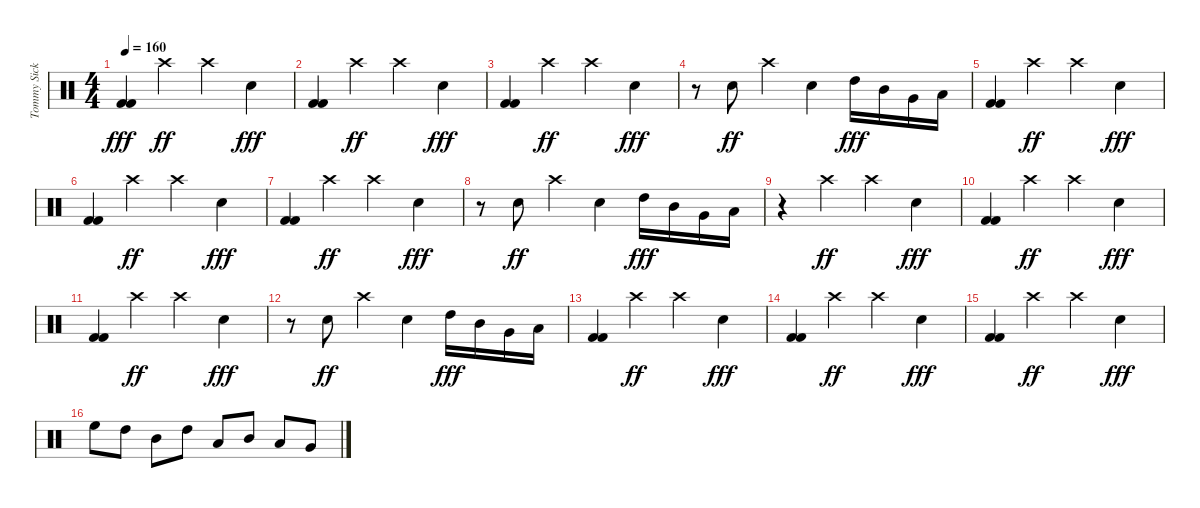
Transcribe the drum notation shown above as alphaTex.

\track ("Tommy Sickles" "Tommy Sick") {instrument percussion}
\staff {score}
\articulation defaults
\ts (4 4)
\tempo 160
\clef neutral
\ks c
("Kick (hit) 2" "Kick (hit) 2").4{dy fff} "Crash high (hit)".4{dy ff} "Crash high (hit)".4 "Electric Snare (hit)".4{dy fff} |
("Kick (hit) 2" "Kick (hit) 2").4 "Crash high (hit)".4{dy ff} "Crash high (hit)".4 "Electric Snare (hit)".4{dy fff} |
("Kick (hit) 2" "Kick (hit) 2").4 "Crash high (hit)".4{dy ff} "Crash high (hit)".4 "Electric Snare (hit)".4{dy fff} |
r.8 "Electric Snare (hit)".8{dy ff} "Crash high (hit)".4 "Electric Snare (hit)".4 "High Tom (hit)".16{dy fff} "Mid Tom (hit)".16 "Very Low Tom (hit)".16 "Low Floor Tom (hit)".16 |
("Kick (hit) 2" "Kick (hit) 2").4 "Crash high (hit)".4{dy ff} "Crash high (hit)".4 "Electric Snare (hit)".4{dy fff} |
("Kick (hit) 2" "Kick (hit) 2").4 "Crash high (hit)".4{dy ff} "Crash high (hit)".4 "Electric Snare (hit)".4{dy fff} |
("Kick (hit) 2" "Kick (hit) 2").4 "Crash high (hit)".4{dy ff} "Crash high (hit)".4 "Electric Snare (hit)".4{dy fff} |
r.8 "Electric Snare (hit)".8{dy ff} "Crash high (hit)".4 "Electric Snare (hit)".4 "High Tom (hit)".16{dy fff} "Mid Tom (hit)".16 "Very Low Tom (hit)".16 "Low Floor Tom (hit)".16 |
r.4 "Crash high (hit)".4{dy ff} "Crash high (hit)".4 "Electric Snare (hit)".4{dy fff} |
("Kick (hit) 2" "Kick (hit) 2").4 "Crash high (hit)".4{dy ff} "Crash high (hit)".4 "Electric Snare (hit)".4{dy fff} |
("Kick (hit) 2" "Kick (hit) 2").4 "Crash high (hit)".4{dy ff} "Crash high (hit)".4 "Electric Snare (hit)".4{dy fff} |
r.8 "Electric Snare (hit)".8{dy ff} "Crash high (hit)".4 "Electric Snare (hit)".4 "High Tom (hit)".16{dy fff} "Mid Tom (hit)".16 "Very Low Tom (hit)".16 "Low Floor Tom (hit)".16 |
("Kick (hit) 2" "Kick (hit) 2").4 "Crash high (hit)".4{dy ff} "Crash high (hit)".4 "Electric Snare (hit)".4{dy fff} |
("Kick (hit) 2" "Kick (hit) 2").4 "Crash high (hit)".4{dy ff} "Crash high (hit)".4 "Electric Snare (hit)".4{dy fff} |
("Kick (hit) 2" "Kick (hit) 2").4 "Crash high (hit)".4{dy ff} "Crash high (hit)".4 "Electric Snare (hit)".4{dy fff} |
"High Floor Tom (hit)".8 "High Tom (hit)".8 "Mid Tom (hit)".8 "High Tom (hit)".8 "Low Tom (hit)".8 "Mid Tom (hit)".8 "Low Tom (hit)".8 "Very Low Tom (hit)".8
